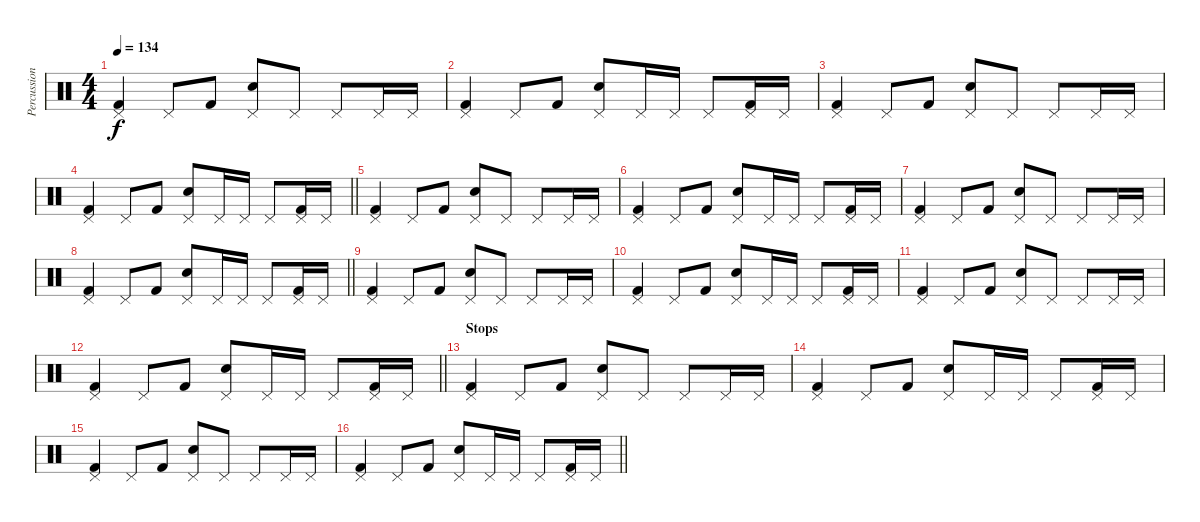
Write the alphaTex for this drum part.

\track ("Percussion" "Percussion") {instrument percussion}
\staff {score}
\articulation defaults
\ts (4 4)
\tempo 134
\clef neutral
\ks c
("Pedal Hi-Hat (hit)" "Kick (hit) 2").4{dy f} "Pedal Hi-Hat (hit)".8 "Kick (hit) 2".8 ("Pedal Hi-Hat (hit)" "Electric Snare (hit)").8 "Pedal Hi-Hat (hit)".8 "Pedal Hi-Hat (hit)".8 "Pedal Hi-Hat (hit)".16 "Pedal Hi-Hat (hit)".16 |
("Pedal Hi-Hat (hit)" "Kick (hit) 2").4 "Pedal Hi-Hat (hit)".8 "Kick (hit) 2".8 ("Pedal Hi-Hat (hit)" "Electric Snare (hit)").8 "Pedal Hi-Hat (hit)".16 "Pedal Hi-Hat (hit)".16 "Pedal Hi-Hat (hit)".8 ("Pedal Hi-Hat (hit)" "Kick (hit) 2").16 "Pedal Hi-Hat (hit)".16 |
("Pedal Hi-Hat (hit)" "Kick (hit) 2").4 "Pedal Hi-Hat (hit)".8 "Kick (hit) 2".8 ("Pedal Hi-Hat (hit)" "Electric Snare (hit)").8 "Pedal Hi-Hat (hit)".8 "Pedal Hi-Hat (hit)".8 "Pedal Hi-Hat (hit)".16 "Pedal Hi-Hat (hit)".16 |
\barLineRight lightlight
("Pedal Hi-Hat (hit)" "Kick (hit) 2").4 "Pedal Hi-Hat (hit)".8 "Kick (hit) 2".8 ("Pedal Hi-Hat (hit)" "Electric Snare (hit)").8 "Pedal Hi-Hat (hit)".16 "Pedal Hi-Hat (hit)".16 "Pedal Hi-Hat (hit)".8 ("Pedal Hi-Hat (hit)" "Kick (hit) 2").16 "Pedal Hi-Hat (hit)".16 |
("Pedal Hi-Hat (hit)" "Kick (hit) 2").4 "Pedal Hi-Hat (hit)".8 "Kick (hit) 2".8 ("Pedal Hi-Hat (hit)" "Electric Snare (hit)").8 "Pedal Hi-Hat (hit)".8 "Pedal Hi-Hat (hit)".8 "Pedal Hi-Hat (hit)".16 "Pedal Hi-Hat (hit)".16 |
("Pedal Hi-Hat (hit)" "Kick (hit) 2").4 "Pedal Hi-Hat (hit)".8 "Kick (hit) 2".8 ("Pedal Hi-Hat (hit)" "Electric Snare (hit)").8 "Pedal Hi-Hat (hit)".16 "Pedal Hi-Hat (hit)".16 "Pedal Hi-Hat (hit)".8 ("Pedal Hi-Hat (hit)" "Kick (hit) 2").16 "Pedal Hi-Hat (hit)".16 |
("Pedal Hi-Hat (hit)" "Kick (hit) 2").4 "Pedal Hi-Hat (hit)".8 "Kick (hit) 2".8 ("Pedal Hi-Hat (hit)" "Electric Snare (hit)").8 "Pedal Hi-Hat (hit)".8 "Pedal Hi-Hat (hit)".8 "Pedal Hi-Hat (hit)".16 "Pedal Hi-Hat (hit)".16 |
\barLineRight lightlight
("Pedal Hi-Hat (hit)" "Kick (hit) 2").4 "Pedal Hi-Hat (hit)".8 "Kick (hit) 2".8 ("Pedal Hi-Hat (hit)" "Electric Snare (hit)").8 "Pedal Hi-Hat (hit)".16 "Pedal Hi-Hat (hit)".16 "Pedal Hi-Hat (hit)".8 ("Pedal Hi-Hat (hit)" "Kick (hit) 2").16 "Pedal Hi-Hat (hit)".16 |
("Pedal Hi-Hat (hit)" "Kick (hit) 2").4 "Pedal Hi-Hat (hit)".8 "Kick (hit) 2".8 ("Pedal Hi-Hat (hit)" "Electric Snare (hit)").8 "Pedal Hi-Hat (hit)".8 "Pedal Hi-Hat (hit)".8 "Pedal Hi-Hat (hit)".16 "Pedal Hi-Hat (hit)".16 |
("Pedal Hi-Hat (hit)" "Kick (hit) 2").4 "Pedal Hi-Hat (hit)".8 "Kick (hit) 2".8 ("Pedal Hi-Hat (hit)" "Electric Snare (hit)").8 "Pedal Hi-Hat (hit)".16 "Pedal Hi-Hat (hit)".16 "Pedal Hi-Hat (hit)".8 ("Pedal Hi-Hat (hit)" "Kick (hit) 2").16 "Pedal Hi-Hat (hit)".16 |
("Pedal Hi-Hat (hit)" "Kick (hit) 2").4 "Pedal Hi-Hat (hit)".8 "Kick (hit) 2".8 ("Pedal Hi-Hat (hit)" "Electric Snare (hit)").8 "Pedal Hi-Hat (hit)".8 "Pedal Hi-Hat (hit)".8 "Pedal Hi-Hat (hit)".16 "Pedal Hi-Hat (hit)".16 |
\barLineRight lightlight
("Pedal Hi-Hat (hit)" "Kick (hit) 2").4 "Pedal Hi-Hat (hit)".8 "Kick (hit) 2".8 ("Pedal Hi-Hat (hit)" "Electric Snare (hit)").8 "Pedal Hi-Hat (hit)".16 "Pedal Hi-Hat (hit)".16 "Pedal Hi-Hat (hit)".8 ("Pedal Hi-Hat (hit)" "Kick (hit) 2").16 "Pedal Hi-Hat (hit)".16 |
\section ("" "Stops")
("Pedal Hi-Hat (hit)" "Kick (hit) 2").4 "Pedal Hi-Hat (hit)".8 "Kick (hit) 2".8 ("Pedal Hi-Hat (hit)" "Electric Snare (hit)").8 "Pedal Hi-Hat (hit)".8 "Pedal Hi-Hat (hit)".8 "Pedal Hi-Hat (hit)".16 "Pedal Hi-Hat (hit)".16 |
("Pedal Hi-Hat (hit)" "Kick (hit) 2").4 "Pedal Hi-Hat (hit)".8 "Kick (hit) 2".8 ("Pedal Hi-Hat (hit)" "Electric Snare (hit)").8 "Pedal Hi-Hat (hit)".16 "Pedal Hi-Hat (hit)".16 "Pedal Hi-Hat (hit)".8 ("Pedal Hi-Hat (hit)" "Kick (hit) 2").16 "Pedal Hi-Hat (hit)".16 |
("Pedal Hi-Hat (hit)" "Kick (hit) 2").4 "Pedal Hi-Hat (hit)".8 "Kick (hit) 2".8 ("Pedal Hi-Hat (hit)" "Electric Snare (hit)").8 "Pedal Hi-Hat (hit)".8 "Pedal Hi-Hat (hit)".8 "Pedal Hi-Hat (hit)".16 "Pedal Hi-Hat (hit)".16 |
\barLineRight lightlight
("Pedal Hi-Hat (hit)" "Kick (hit) 2").4 "Pedal Hi-Hat (hit)".8 "Kick (hit) 2".8 ("Pedal Hi-Hat (hit)" "Electric Snare (hit)").8 "Pedal Hi-Hat (hit)".16 "Pedal Hi-Hat (hit)".16 "Pedal Hi-Hat (hit)".8 ("Pedal Hi-Hat (hit)" "Kick (hit) 2").16 "Pedal Hi-Hat (hit)".16
